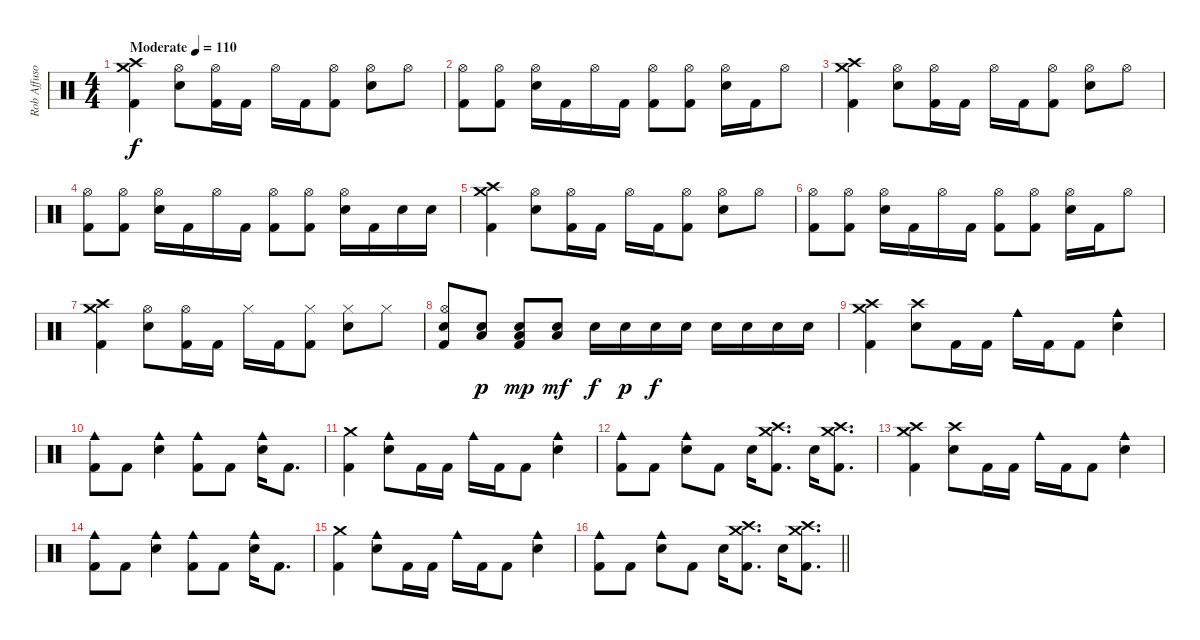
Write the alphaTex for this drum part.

\track ("Rob Affuso - Drums" "Rob Affuso") {instrument percussion}
\staff {score}
\articulation defaults
\ts (4 4)
\tempo (110 "Moderate")
\clef neutral
\ks c
("Crash medium (hit)" "Crash high (hit)" "Kick (hit) 2").4{dy f} ("Hi-Hat (open)" "Snare (hit) 2").8 ("Hi-Hat (open)" "Kick (hit) 2").16 "Kick (hit) 2".16 "Hi-Hat (open)".16 "Kick (hit) 2".16 ("Hi-Hat (open)" "Kick (hit) 2").8 ("Hi-Hat (open)" "Snare (hit) 2").8 "Hi-Hat (open)".8 |
("Hi-Hat (open)" "Kick (hit) 2").8 ("Hi-Hat (open)" "Kick (hit) 2").8 ("Hi-Hat (open)" "Snare (hit) 2").16 "Kick (hit) 2".16 "Hi-Hat (open)".16 "Kick (hit) 2".16 ("Hi-Hat (open)" "Kick (hit) 2").8 ("Hi-Hat (open)" "Kick (hit) 2").8 ("Hi-Hat (open)" "Snare (hit) 2").16 "Kick (hit) 2".16 "Hi-Hat (open)".8 |
("Crash medium (hit)" "Crash high (hit)" "Kick (hit) 2").4 ("Hi-Hat (open)" "Snare (hit) 2").8 ("Hi-Hat (open)" "Kick (hit) 2").16 "Kick (hit) 2".16 "Hi-Hat (open)".16 "Kick (hit) 2".16 ("Hi-Hat (open)" "Kick (hit) 2").8 ("Hi-Hat (open)" "Snare (hit) 2").8 "Hi-Hat (open)".8 |
("Hi-Hat (open)" "Kick (hit) 2").8 ("Hi-Hat (open)" "Kick (hit) 2").8 ("Hi-Hat (open)" "Snare (hit) 2").16 "Kick (hit) 2".16 "Hi-Hat (open)".16 "Kick (hit) 2".16 ("Hi-Hat (open)" "Kick (hit) 2").8 ("Hi-Hat (open)" "Kick (hit) 2").8 ("Hi-Hat (open)" "Snare (hit) 2").16 "Kick (hit) 2".16 "Snare (hit) 2".16 "Snare (hit) 2".16 |
("Crash medium (hit)" "Crash high (hit)" "Kick (hit) 2").4 ("Hi-Hat (open)" "Snare (hit) 2").8 ("Hi-Hat (open)" "Kick (hit) 2").16 "Kick (hit) 2".16 "Hi-Hat (open)".16 "Kick (hit) 2".16 ("Hi-Hat (open)" "Kick (hit) 2").8 ("Hi-Hat (open)" "Snare (hit) 2").8 "Hi-Hat (open)".8 |
("Hi-Hat (open)" "Kick (hit) 2").8 ("Hi-Hat (open)" "Kick (hit) 2").8 ("Hi-Hat (open)" "Snare (hit) 2").16 "Kick (hit) 2".16 "Hi-Hat (open)".16 "Kick (hit) 2".16 ("Hi-Hat (open)" "Kick (hit) 2").8 ("Hi-Hat (open)" "Kick (hit) 2").8 ("Hi-Hat (open)" "Snare (hit) 2").16 "Kick (hit) 2".16 "Hi-Hat (open)".8 |
("Crash medium (hit)" "Crash high (hit)" "Kick (hit) 2").4 ("Hi-Hat (open)" "Snare (hit) 2").8 ("Hi-Hat (open)" "Kick (hit) 2").16 "Kick (hit) 2".16 "Hi-Hat (closed)".16 "Kick (hit) 2".16 ("Hi-Hat (closed)" "Kick (hit) 2").8 ("Hi-Hat (closed)" "Snare (hit) 2").8 "Hi-Hat (closed)".8 |
("Hi-Hat (open)" "Snare (hit) 2" "Kick (hit) 2").8 ("Low Tom (hit)" "Snare (hit) 2").8{dy p} ("Low Tom (hit)" "Snare (hit) 2" "Kick (hit) 2").8{dy mp} ("Low Tom (hit)" "Snare (hit) 2").8{dy mf} "Snare (hit) 2".16{dy f} "Snare (hit) 2".16{dy p} "Snare (hit) 2".16{dy f} "Snare (hit) 2".16 "Snare (hit) 2".16 "Snare (hit) 2".16 "Snare (hit) 2".16 "Snare (hit) 2".16 |
("Crash medium (hit)" "Crash high (hit)" "Kick (hit) 2").4 ("Crash high (hit)" "Snare (hit) 2").8 "Kick (hit) 2".16 "Kick (hit) 2".16 "Cowbell medium (hit)".16 "Kick (hit) 2".16 "Kick (hit) 2".8 ("Cowbell medium (hit)" "Snare (hit) 2").4 |
("Cowbell medium (hit)" "Kick (hit) 2").8 "Kick (hit) 2".8 ("Cowbell medium (hit)" "Snare (hit) 2").4 ("Cowbell medium (hit)" "Kick (hit) 2").8 "Kick (hit) 2".8 ("Cowbell medium (hit)" "Snare (hit) 2").16 "Kick (hit) 2".8{d} |
("Crash medium (hit)" "Kick (hit) 2").4 ("Cowbell medium (hit)" "Snare (hit) 2").8 "Kick (hit) 2".16 "Kick (hit) 2".16 "Cowbell medium (hit)".16 "Kick (hit) 2".16 "Kick (hit) 2".8 ("Cowbell medium (hit)" "Snare (hit) 2").4 |
("Cowbell medium (hit)" "Kick (hit) 2").8 "Kick (hit) 2".8 ("Cowbell medium (hit)" "Snare (hit) 2").8 "Kick (hit) 2".8 "Snare (hit) 2".16 ("Crash medium (hit)" "Crash high (hit)" "Kick (hit) 2").8{d} "Snare (hit) 2".16 ("Crash high (hit)" "Crash medium (hit)" "Kick (hit) 2").8{d} |
("Crash medium (hit)" "Crash high (hit)" "Kick (hit) 2").4 ("Crash high (hit)" "Snare (hit) 2").8 "Kick (hit) 2".16 "Kick (hit) 2".16 "Cowbell medium (hit)".16 "Kick (hit) 2".16 "Kick (hit) 2".8 ("Cowbell medium (hit)" "Snare (hit) 2").4 |
("Cowbell medium (hit)" "Kick (hit) 2").8 "Kick (hit) 2".8 ("Cowbell medium (hit)" "Snare (hit) 2").4 ("Cowbell medium (hit)" "Kick (hit) 2").8 "Kick (hit) 2".8 ("Cowbell medium (hit)" "Snare (hit) 2").16 "Kick (hit) 2".8{d} |
("Crash medium (hit)" "Kick (hit) 2").4 ("Cowbell medium (hit)" "Snare (hit) 2").8 "Kick (hit) 2".16 "Kick (hit) 2".16 "Cowbell medium (hit)".16 "Kick (hit) 2".16 "Kick (hit) 2".8 ("Cowbell medium (hit)" "Snare (hit) 2").4 |
\barLineRight lightlight
("Cowbell medium (hit)" "Kick (hit) 2").8 "Kick (hit) 2".8 ("Cowbell medium (hit)" "Snare (hit) 2").8 "Kick (hit) 2".8 "Snare (hit) 2".16 ("Crash medium (hit)" "Crash high (hit)" "Kick (hit) 2").8{d} "Snare (hit) 2".16 ("Crash high (hit)" "Crash medium (hit)" "Kick (hit) 2").8{d}
